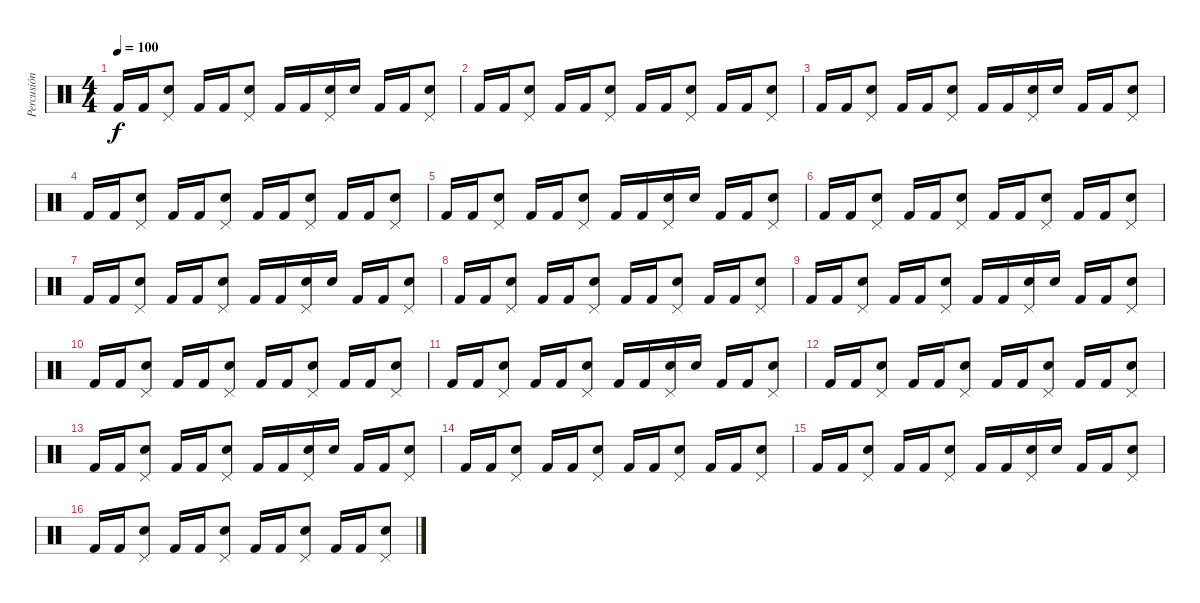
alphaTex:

\track ("Percusión" "Percusión") {instrument percussion}
\staff {score}
\articulation defaults
\ts (4 4)
\tempo 100
\clef neutral
\ks c "Kick (hit) 2".16{dy f} "Kick (hit) 2".16
("Electric Snare (hit)" "Pedal Hi-Hat (hit)").8 "Kick (hit) 2".16 "Kick (hit) 2".16 ("Electric Snare (hit)" "Pedal Hi-Hat (hit)").8 "Kick (hit) 2".16 "Kick (hit) 2".16 ("Electric Snare (hit)" "Pedal Hi-Hat (hit)").16 "Electric Snare (hit)".16 "Kick (hit) 2".16 "Kick (hit) 2".16 ("Electric Snare (hit)" "Pedal Hi-Hat (hit)").8 |
"Kick (hit) 2".16 "Kick (hit) 2".16 ("Electric Snare (hit)" "Pedal Hi-Hat (hit)").8 "Kick (hit) 2".16 "Kick (hit) 2".16 ("Electric Snare (hit)" "Pedal Hi-Hat (hit)").8 "Kick (hit) 2".16 "Kick (hit) 2".16 ("Electric Snare (hit)" "Pedal Hi-Hat (hit)").8 "Kick (hit) 2".16 "Kick (hit) 2".16 ("Electric Snare (hit)" "Pedal Hi-Hat (hit)").8 |
"Kick (hit) 2".16 "Kick (hit) 2".16 ("Electric Snare (hit)" "Pedal Hi-Hat (hit)").8 "Kick (hit) 2".16 "Kick (hit) 2".16 ("Electric Snare (hit)" "Pedal Hi-Hat (hit)").8 "Kick (hit) 2".16 "Kick (hit) 2".16 ("Electric Snare (hit)" "Pedal Hi-Hat (hit)").16 "Electric Snare (hit)".16 "Kick (hit) 2".16 "Kick (hit) 2".16 ("Electric Snare (hit)" "Pedal Hi-Hat (hit)").8 |
"Kick (hit) 2".16 "Kick (hit) 2".16 ("Electric Snare (hit)" "Pedal Hi-Hat (hit)").8 "Kick (hit) 2".16 "Kick (hit) 2".16 ("Electric Snare (hit)" "Pedal Hi-Hat (hit)").8 "Kick (hit) 2".16 "Kick (hit) 2".16 ("Electric Snare (hit)" "Pedal Hi-Hat (hit)").8 "Kick (hit) 2".16 "Kick (hit) 2".16 ("Electric Snare (hit)" "Pedal Hi-Hat (hit)").8 |
"Kick (hit) 2".16 "Kick (hit) 2".16 ("Electric Snare (hit)" "Pedal Hi-Hat (hit)").8 "Kick (hit) 2".16 "Kick (hit) 2".16 ("Electric Snare (hit)" "Pedal Hi-Hat (hit)").8 "Kick (hit) 2".16 "Kick (hit) 2".16 ("Electric Snare (hit)" "Pedal Hi-Hat (hit)").16 "Electric Snare (hit)".16 "Kick (hit) 2".16 "Kick (hit) 2".16 ("Electric Snare (hit)" "Pedal Hi-Hat (hit)").8 |
"Kick (hit) 2".16 "Kick (hit) 2".16 ("Electric Snare (hit)" "Pedal Hi-Hat (hit)").8 "Kick (hit) 2".16 "Kick (hit) 2".16 ("Electric Snare (hit)" "Pedal Hi-Hat (hit)").8 "Kick (hit) 2".16 "Kick (hit) 2".16 ("Electric Snare (hit)" "Pedal Hi-Hat (hit)").8 "Kick (hit) 2".16 "Kick (hit) 2".16 ("Electric Snare (hit)" "Pedal Hi-Hat (hit)").8 |
"Kick (hit) 2".16 "Kick (hit) 2".16 ("Electric Snare (hit)" "Pedal Hi-Hat (hit)").8 "Kick (hit) 2".16 "Kick (hit) 2".16 ("Electric Snare (hit)" "Pedal Hi-Hat (hit)").8 "Kick (hit) 2".16 "Kick (hit) 2".16 ("Electric Snare (hit)" "Pedal Hi-Hat (hit)").16 "Electric Snare (hit)".16 "Kick (hit) 2".16 "Kick (hit) 2".16 ("Electric Snare (hit)" "Pedal Hi-Hat (hit)").8 |
"Kick (hit) 2".16 "Kick (hit) 2".16 ("Electric Snare (hit)" "Pedal Hi-Hat (hit)").8 "Kick (hit) 2".16 "Kick (hit) 2".16 ("Electric Snare (hit)" "Pedal Hi-Hat (hit)").8 "Kick (hit) 2".16 "Kick (hit) 2".16 ("Electric Snare (hit)" "Pedal Hi-Hat (hit)").8 "Kick (hit) 2".16 "Kick (hit) 2".16 ("Electric Snare (hit)" "Pedal Hi-Hat (hit)").8 |
"Kick (hit) 2".16 "Kick (hit) 2".16 ("Electric Snare (hit)" "Pedal Hi-Hat (hit)").8 "Kick (hit) 2".16 "Kick (hit) 2".16 ("Electric Snare (hit)" "Pedal Hi-Hat (hit)").8 "Kick (hit) 2".16 "Kick (hit) 2".16 ("Electric Snare (hit)" "Pedal Hi-Hat (hit)").16 "Electric Snare (hit)".16 "Kick (hit) 2".16 "Kick (hit) 2".16 ("Electric Snare (hit)" "Pedal Hi-Hat (hit)").8 |
"Kick (hit) 2".16 "Kick (hit) 2".16 ("Electric Snare (hit)" "Pedal Hi-Hat (hit)").8 "Kick (hit) 2".16 "Kick (hit) 2".16 ("Electric Snare (hit)" "Pedal Hi-Hat (hit)").8 "Kick (hit) 2".16 "Kick (hit) 2".16 ("Electric Snare (hit)" "Pedal Hi-Hat (hit)").8 "Kick (hit) 2".16 "Kick (hit) 2".16 ("Electric Snare (hit)" "Pedal Hi-Hat (hit)").8 |
"Kick (hit) 2".16 "Kick (hit) 2".16 ("Electric Snare (hit)" "Pedal Hi-Hat (hit)").8 "Kick (hit) 2".16 "Kick (hit) 2".16 ("Electric Snare (hit)" "Pedal Hi-Hat (hit)").8 "Kick (hit) 2".16 "Kick (hit) 2".16 ("Electric Snare (hit)" "Pedal Hi-Hat (hit)").16 "Electric Snare (hit)".16 "Kick (hit) 2".16 "Kick (hit) 2".16 ("Electric Snare (hit)" "Pedal Hi-Hat (hit)").8 |
"Kick (hit) 2".16 "Kick (hit) 2".16 ("Electric Snare (hit)" "Pedal Hi-Hat (hit)").8 "Kick (hit) 2".16 "Kick (hit) 2".16 ("Electric Snare (hit)" "Pedal Hi-Hat (hit)").8 "Kick (hit) 2".16 "Kick (hit) 2".16 ("Electric Snare (hit)" "Pedal Hi-Hat (hit)").8 "Kick (hit) 2".16 "Kick (hit) 2".16 ("Electric Snare (hit)" "Pedal Hi-Hat (hit)").8 |
"Kick (hit) 2".16 "Kick (hit) 2".16 ("Electric Snare (hit)" "Pedal Hi-Hat (hit)").8 "Kick (hit) 2".16 "Kick (hit) 2".16 ("Electric Snare (hit)" "Pedal Hi-Hat (hit)").8 "Kick (hit) 2".16 "Kick (hit) 2".16 ("Electric Snare (hit)" "Pedal Hi-Hat (hit)").16 "Electric Snare (hit)".16 "Kick (hit) 2".16 "Kick (hit) 2".16 ("Electric Snare (hit)" "Pedal Hi-Hat (hit)").8 |
"Kick (hit) 2".16 "Kick (hit) 2".16 ("Electric Snare (hit)" "Pedal Hi-Hat (hit)").8 "Kick (hit) 2".16 "Kick (hit) 2".16 ("Electric Snare (hit)" "Pedal Hi-Hat (hit)").8 "Kick (hit) 2".16 "Kick (hit) 2".16 ("Electric Snare (hit)" "Pedal Hi-Hat (hit)").8 "Kick (hit) 2".16 "Kick (hit) 2".16 ("Electric Snare (hit)" "Pedal Hi-Hat (hit)").8 |
"Kick (hit) 2".16 "Kick (hit) 2".16 ("Electric Snare (hit)" "Pedal Hi-Hat (hit)").8 "Kick (hit) 2".16 "Kick (hit) 2".16 ("Electric Snare (hit)" "Pedal Hi-Hat (hit)").8 "Kick (hit) 2".16 "Kick (hit) 2".16 ("Electric Snare (hit)" "Pedal Hi-Hat (hit)").16 "Electric Snare (hit)".16 "Kick (hit) 2".16 "Kick (hit) 2".16 ("Electric Snare (hit)" "Pedal Hi-Hat (hit)").8 |
"Kick (hit) 2".16 "Kick (hit) 2".16 ("Electric Snare (hit)" "Pedal Hi-Hat (hit)").8 "Kick (hit) 2".16 "Kick (hit) 2".16 ("Electric Snare (hit)" "Pedal Hi-Hat (hit)").8 "Kick (hit) 2".16 "Kick (hit) 2".16 ("Electric Snare (hit)" "Pedal Hi-Hat (hit)").8 "Kick (hit) 2".16 "Kick (hit) 2".16 ("Electric Snare (hit)" "Pedal Hi-Hat (hit)").8
